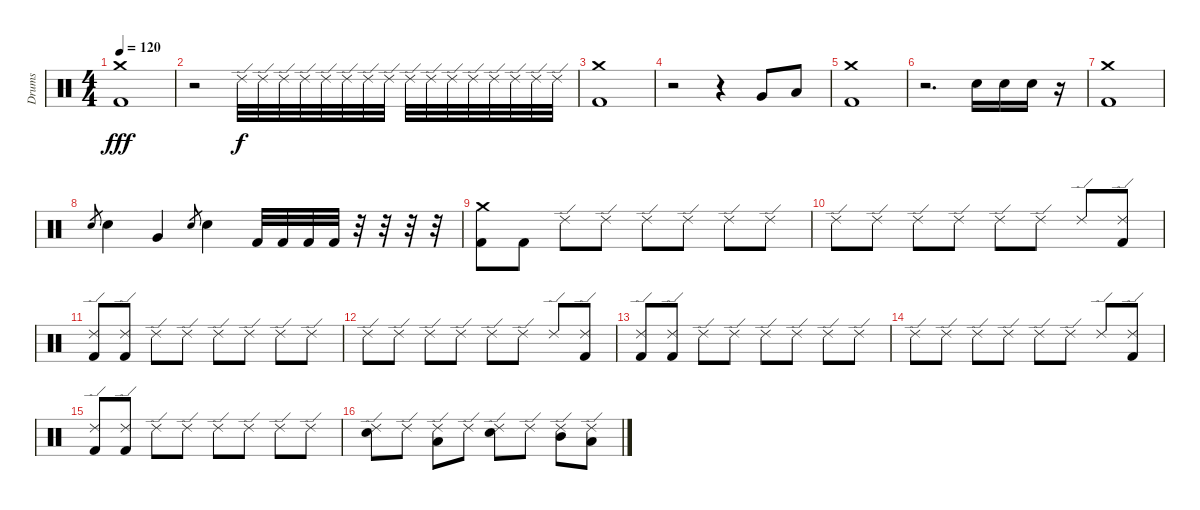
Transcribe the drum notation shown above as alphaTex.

\track ("Drums" "Drums") {instrument percussion}
\staff {score}
\articulation defaults
\ts (4 4)
\tempo 120
\clef neutral
\ks c
("Crash medium (hit)" "Kick (hit) 2").1{dy fff} |
r.2 "Ride (edge) 2".32{dy f} "Ride (edge) 2".32 "Ride (edge) 2".32 "Ride (edge) 2".32 "Ride (edge) 2".32 "Ride (edge) 2".32 "Ride (edge) 2".32 "Ride (edge) 2".32 "Ride (edge) 2".32 "Ride (edge) 2".32 "Ride (edge) 2".32 "Ride (edge) 2".32 "Ride (edge) 2".32 "Ride (edge) 2".32 "Ride (edge) 2".32 "Ride (edge) 2".32 |
("Crash medium (hit)" "Kick (hit) 2").1 |
r.2 r.4 "Very Low Tom (hit)".8 "Low Floor Tom (hit)".8 |
("Crash medium (hit)" "Kick (hit) 2").1 |
r.2{d} "Snare (hit) 2".16 "Snare (hit) 2".16 "Snare (hit) 2".16 r.16 |
("Crash medium (hit)" "Kick (hit) 2").1 |
"Snare (hit) 2".8{gr} "Snare (hit) 2".4 "Very Low Tom (hit)".4 "Snare (hit) 2".8{gr} "Snare (hit) 2".4 "Kick (hit) 2".32 "Kick (hit) 2".32 "Kick (hit) 2".32 "Kick (hit) 2".32 r.32 r.32 r.32 r.32 |
("Crash medium (hit)" "Kick (hit) 2").8 "Kick (hit) 2".8 "Ride (edge) 2".8 "Ride (edge) 2".8 "Ride (edge) 2".8 "Ride (edge) 2".8 "Ride (edge) 2".8 "Ride (edge) 2".8 |
"Ride (edge) 2".8 "Ride (edge) 2".8 "Ride (edge) 2".8 "Ride (edge) 2".8 "Ride (edge) 2".8 "Ride (edge) 2".8 "Ride (edge) 2".8 ("Ride (edge) 2" "Kick (hit) 2").8 |
("Ride (edge) 2" "Kick (hit) 2").8 ("Ride (edge) 2" "Kick (hit) 2").8 "Ride (edge) 2".8 "Ride (edge) 2".8 "Ride (edge) 2".8 "Ride (edge) 2".8 "Ride (edge) 2".8 "Ride (edge) 2".8 |
"Ride (edge) 2".8 "Ride (edge) 2".8 "Ride (edge) 2".8 "Ride (edge) 2".8 "Ride (edge) 2".8 "Ride (edge) 2".8 "Ride (edge) 2".8 ("Ride (edge) 2" "Kick (hit) 2").8 |
("Ride (edge) 2" "Kick (hit) 2").8 ("Ride (edge) 2" "Kick (hit) 2").8 "Ride (edge) 2".8 "Ride (edge) 2".8 "Ride (edge) 2".8 "Ride (edge) 2".8 "Ride (edge) 2".8 "Ride (edge) 2".8 |
"Ride (edge) 2".8 "Ride (edge) 2".8 "Ride (edge) 2".8 "Ride (edge) 2".8 "Ride (edge) 2".8 "Ride (edge) 2".8 "Ride (edge) 2".8 ("Ride (edge) 2" "Kick (hit) 2").8 |
("Ride (edge) 2" "Kick (hit) 2").8 ("Ride (edge) 2" "Kick (hit) 2").8 "Ride (edge) 2".8 "Ride (edge) 2".8 "Ride (edge) 2".8 "Ride (edge) 2".8 "Ride (edge) 2".8 "Ride (edge) 2".8 |
("Ride (edge) 2" "Snare (hit) 2").8 "Ride (edge) 2".8 ("Ride (edge) 2" "Low Tom (hit)").8 "Ride (edge) 2".8 ("Ride (edge) 2" "Snare (hit) 2").8 "Ride (edge) 2".8 ("Ride (edge) 2" "Mid Tom (hit)").8 ("Ride (edge) 2" "Low Tom (hit)").8
